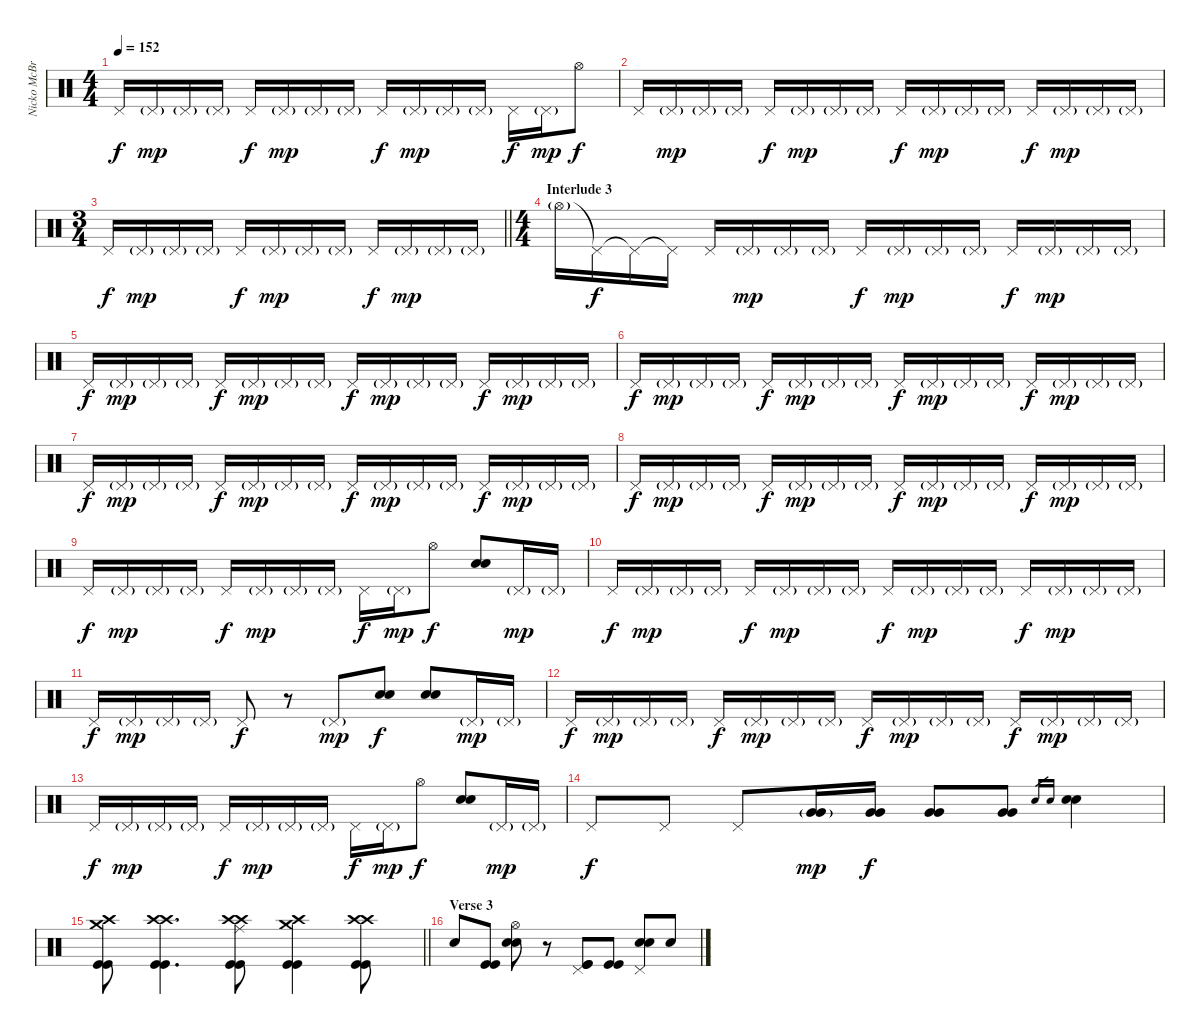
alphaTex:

\track ("Nicko McBrain" "Nicko McBr") {instrument percussion}
\staff {score}
\articulation defaults
\ts (4 4)
\tempo 152
\clef neutral
\ks c "Pedal Hi-Hat (hit)".16{dy f} "Pedal Hi-Hat (hit)"{g}.16{dy mp} "Pedal Hi-Hat (hit)"{g}.16 "Pedal Hi-Hat (hit)"{g}.16 "Pedal Hi-Hat (hit)".16{dy f} "Pedal Hi-Hat (hit)"{g}.16{dy mp} "Pedal Hi-Hat (hit)"{g}.16 "Pedal Hi-Hat (hit)"{g}.16 "Pedal Hi-Hat (hit)".16{dy f} "Pedal Hi-Hat (hit)"{g}.16{dy mp} "Pedal Hi-Hat (hit)"{g}.16 "Pedal Hi-Hat (hit)"{g}.16 "Pedal Hi-Hat (hit)".16{dy f} "Pedal Hi-Hat (hit)"{g}.16{dy mp} "Hi-Hat (open)".8{dy f}
|
"Pedal Hi-Hat (hit)".16 "Pedal Hi-Hat (hit)"{g}.16{dy mp} "Pedal Hi-Hat (hit)"{g}.16 "Pedal Hi-Hat (hit)"{g}.16 "Pedal Hi-Hat (hit)".16{dy f} "Pedal Hi-Hat (hit)"{g}.16{dy mp} "Pedal Hi-Hat (hit)"{g}.16 "Pedal Hi-Hat (hit)"{g}.16 "Pedal Hi-Hat (hit)".16{dy f} "Pedal Hi-Hat (hit)"{g}.16{dy mp} "Pedal Hi-Hat (hit)"{g}.16 "Pedal Hi-Hat (hit)"{g}.16 "Pedal Hi-Hat (hit)".16{dy f} "Pedal Hi-Hat (hit)"{g}.16{dy mp} "Pedal Hi-Hat (hit)"{g}.16 "Pedal Hi-Hat (hit)"{g}.16 |
\ts (3 4)
\barLineRight lightlight "Pedal Hi-Hat (hit)".16{dy f} "Pedal Hi-Hat (hit)"{g}.16{dy mp} "Pedal Hi-Hat (hit)"{g}.16 "Pedal Hi-Hat (hit)"{g}.16 "Pedal Hi-Hat (hit)".16{dy f} "Pedal Hi-Hat (hit)"{g}.16{dy mp} "Pedal Hi-Hat (hit)"{g}.16 "Pedal Hi-Hat (hit)"{g}.16 "Pedal Hi-Hat (hit)".16{dy f} "Pedal Hi-Hat (hit)"{g}.16{dy mp} "Pedal Hi-Hat (hit)"{g}.16 "Pedal Hi-Hat (hit)"{g}.16
|
\ts (4 4)
\section ("" "Interlude 3")
"Hi-Hat (open)"{g}.16 "Pedal Hi-Hat (hit)"{t}.16{dy f} "Pedal Hi-Hat (hit)"{t}.16 "Pedal Hi-Hat (hit)"{t}.16 "Pedal Hi-Hat (hit)".16 "Pedal Hi-Hat (hit)"{g}.16{dy mp} "Pedal Hi-Hat (hit)"{g}.16 "Pedal Hi-Hat (hit)"{g}.16 "Pedal Hi-Hat (hit)".16{dy f} "Pedal Hi-Hat (hit)"{g}.16{dy mp} "Pedal Hi-Hat (hit)"{g}.16 "Pedal Hi-Hat (hit)"{g}.16 "Pedal Hi-Hat (hit)".16{dy f} "Pedal Hi-Hat (hit)"{g}.16{dy mp} "Pedal Hi-Hat (hit)"{g}.16 "Pedal Hi-Hat (hit)"{g}.16 |
"Pedal Hi-Hat (hit)".16{dy f} "Pedal Hi-Hat (hit)"{g}.16{dy mp} "Pedal Hi-Hat (hit)"{g}.16 "Pedal Hi-Hat (hit)"{g}.16 "Pedal Hi-Hat (hit)".16{dy f} "Pedal Hi-Hat (hit)"{g}.16{dy mp} "Pedal Hi-Hat (hit)"{g}.16 "Pedal Hi-Hat (hit)"{g}.16 "Pedal Hi-Hat (hit)".16{dy f} "Pedal Hi-Hat (hit)"{g}.16{dy mp} "Pedal Hi-Hat (hit)"{g}.16 "Pedal Hi-Hat (hit)"{g}.16 "Pedal Hi-Hat (hit)".16{dy f} "Pedal Hi-Hat (hit)"{g}.16{dy mp} "Pedal Hi-Hat (hit)"{g}.16 "Pedal Hi-Hat (hit)"{g}.16 |
"Pedal Hi-Hat (hit)".16{dy f} "Pedal Hi-Hat (hit)"{g}.16{dy mp} "Pedal Hi-Hat (hit)"{g}.16 "Pedal Hi-Hat (hit)"{g}.16 "Pedal Hi-Hat (hit)".16{dy f} "Pedal Hi-Hat (hit)"{g}.16{dy mp} "Pedal Hi-Hat (hit)"{g}.16 "Pedal Hi-Hat (hit)"{g}.16 "Pedal Hi-Hat (hit)".16{dy f} "Pedal Hi-Hat (hit)"{g}.16{dy mp} "Pedal Hi-Hat (hit)"{g}.16 "Pedal Hi-Hat (hit)"{g}.16 "Pedal Hi-Hat (hit)".16{dy f} "Pedal Hi-Hat (hit)"{g}.16{dy mp} "Pedal Hi-Hat (hit)"{g}.16 "Pedal Hi-Hat (hit)"{g}.16 |
"Pedal Hi-Hat (hit)".16{dy f} "Pedal Hi-Hat (hit)"{g}.16{dy mp} "Pedal Hi-Hat (hit)"{g}.16 "Pedal Hi-Hat (hit)"{g}.16 "Pedal Hi-Hat (hit)".16{dy f} "Pedal Hi-Hat (hit)"{g}.16{dy mp} "Pedal Hi-Hat (hit)"{g}.16 "Pedal Hi-Hat (hit)"{g}.16 "Pedal Hi-Hat (hit)".16{dy f} "Pedal Hi-Hat (hit)"{g}.16{dy mp} "Pedal Hi-Hat (hit)"{g}.16 "Pedal Hi-Hat (hit)"{g}.16 "Pedal Hi-Hat (hit)".16{dy f} "Pedal Hi-Hat (hit)"{g}.16{dy mp} "Pedal Hi-Hat (hit)"{g}.16 "Pedal Hi-Hat (hit)"{g}.16 |
"Pedal Hi-Hat (hit)".16{dy f} "Pedal Hi-Hat (hit)"{g}.16{dy mp} "Pedal Hi-Hat (hit)"{g}.16 "Pedal Hi-Hat (hit)"{g}.16 "Pedal Hi-Hat (hit)".16{dy f} "Pedal Hi-Hat (hit)"{g}.16{dy mp} "Pedal Hi-Hat (hit)"{g}.16 "Pedal Hi-Hat (hit)"{g}.16 "Pedal Hi-Hat (hit)".16{dy f} "Pedal Hi-Hat (hit)"{g}.16{dy mp} "Pedal Hi-Hat (hit)"{g}.16 "Pedal Hi-Hat (hit)"{g}.16 "Pedal Hi-Hat (hit)".16{dy f} "Pedal Hi-Hat (hit)"{g}.16{dy mp} "Pedal Hi-Hat (hit)"{g}.16 "Pedal Hi-Hat (hit)"{g}.16 |
"Pedal Hi-Hat (hit)".16{dy f} "Pedal Hi-Hat (hit)"{g}.16{dy mp} "Pedal Hi-Hat (hit)"{g}.16 "Pedal Hi-Hat (hit)"{g}.16 "Pedal Hi-Hat (hit)".16{dy f} "Pedal Hi-Hat (hit)"{g}.16{dy mp} "Pedal Hi-Hat (hit)"{g}.16 "Pedal Hi-Hat (hit)"{g}.16 "Pedal Hi-Hat (hit)".16{dy f} "Pedal Hi-Hat (hit)"{g}.16{dy mp} "Hi-Hat (open)".8{dy f} ("Electric Snare (hit)" "Electric Snare (hit)").8 "Pedal Hi-Hat (hit)"{g}.16{dy mp} "Pedal Hi-Hat (hit)"{g}.16 |
"Pedal Hi-Hat (hit)".16{dy f} "Pedal Hi-Hat (hit)"{g}.16{dy mp} "Pedal Hi-Hat (hit)"{g}.16 "Pedal Hi-Hat (hit)"{g}.16 "Pedal Hi-Hat (hit)".16{dy f} "Pedal Hi-Hat (hit)"{g}.16{dy mp} "Pedal Hi-Hat (hit)"{g}.16 "Pedal Hi-Hat (hit)"{g}.16 "Pedal Hi-Hat (hit)".16{dy f} "Pedal Hi-Hat (hit)"{g}.16{dy mp} "Pedal Hi-Hat (hit)"{g}.16 "Pedal Hi-Hat (hit)"{g}.16 "Pedal Hi-Hat (hit)".16{dy f} "Pedal Hi-Hat (hit)"{g}.16{dy mp} "Pedal Hi-Hat (hit)"{g}.16 "Pedal Hi-Hat (hit)"{g}.16 |
"Pedal Hi-Hat (hit)".16{dy f} "Pedal Hi-Hat (hit)"{g}.16{dy mp} "Pedal Hi-Hat (hit)"{g}.16 "Pedal Hi-Hat (hit)"{g}.16 "Pedal Hi-Hat (hit)".8{dy f} r.8 "Pedal Hi-Hat (hit)"{g}.8{dy mp} ("Electric Snare (hit)" "Electric Snare (hit)").8{dy f} ("Electric Snare (hit)" "Electric Snare (hit)").8 "Pedal Hi-Hat (hit)"{g}.16{dy mp} "Pedal Hi-Hat (hit)"{g}.16 |
"Pedal Hi-Hat (hit)".16{dy f} "Pedal Hi-Hat (hit)"{g}.16{dy mp} "Pedal Hi-Hat (hit)"{g}.16 "Pedal Hi-Hat (hit)"{g}.16 "Pedal Hi-Hat (hit)".16{dy f} "Pedal Hi-Hat (hit)"{g}.16{dy mp} "Pedal Hi-Hat (hit)"{g}.16 "Pedal Hi-Hat (hit)"{g}.16 "Pedal Hi-Hat (hit)".16{dy f} "Pedal Hi-Hat (hit)"{g}.16{dy mp} "Pedal Hi-Hat (hit)"{g}.16 "Pedal Hi-Hat (hit)"{g}.16 "Pedal Hi-Hat (hit)".16{dy f} "Pedal Hi-Hat (hit)"{g}.16{dy mp} "Pedal Hi-Hat (hit)"{g}.16 "Pedal Hi-Hat (hit)"{g}.16 |
"Pedal Hi-Hat (hit)".16{dy f} "Pedal Hi-Hat (hit)"{g}.16{dy mp} "Pedal Hi-Hat (hit)"{g}.16 "Pedal Hi-Hat (hit)"{g}.16 "Pedal Hi-Hat (hit)".16{dy f} "Pedal Hi-Hat (hit)"{g}.16{dy mp} "Pedal Hi-Hat (hit)"{g}.16 "Pedal Hi-Hat (hit)"{g}.16 "Pedal Hi-Hat (hit)".16{dy f} "Pedal Hi-Hat (hit)"{g}.16{dy mp} "Hi-Hat (open)".8{dy f} ("Electric Snare (hit)" "Electric Snare (hit)").8 "Pedal Hi-Hat (hit)"{g}.16{dy mp} "Pedal Hi-Hat (hit)"{g}.16 |
"Pedal Hi-Hat (hit)".8{dy f} "Pedal Hi-Hat (hit)".8 "Pedal Hi-Hat (hit)".8 ("Very Low Tom (hit)"{g} "Very Low Tom (hit)"{g}).16{dy mp} ("Very Low Tom (hit)" "Very Low Tom (hit)").16{dy f} ("Very Low Tom (hit)" "Very Low Tom (hit)").8 ("Very Low Tom (hit)" "Very Low Tom (hit)").8 "Electric Snare (hit)".16{gr} "Electric Snare (hit)".16{gr} ("Electric Snare (hit)" "Electric Snare (hit)").4 |
\barLineRight lightlight
("Crash high (hit)" "Crash medium (hit)" "Kick (hit)" "Kick (hit)").8 ("Crash high (hit)" "Crash high (hit)" "Kick (hit)" "Kick (hit)").4{d} ("Crash high (hit)" "Crash high (hit)" "Ride (middle)" "Kick (hit)" "Kick (hit)").8 ("Crash high (hit)" "Crash medium (hit)" "Kick (hit)" "Kick (hit)").4 ("Crash high (hit)" "Crash high (hit)" "Kick (hit)" "Kick (hit)").8 |
\section ("" "Verse 3")
"Snare (hit)".8 ("Kick (hit)" "Kick (hit)").8 ("Hi-Hat (open)" "Electric Snare (hit)" "Electric Snare (hit)").8 r.8 ("Pedal Hi-Hat (hit)" "Kick (hit)" "Kick (hit)").8 ("Kick (hit)" "Kick (hit)").8 ("Pedal Hi-Hat (hit)" "Electric Snare (hit)" "Electric Snare (hit)").8 "Snare (hit)".8
